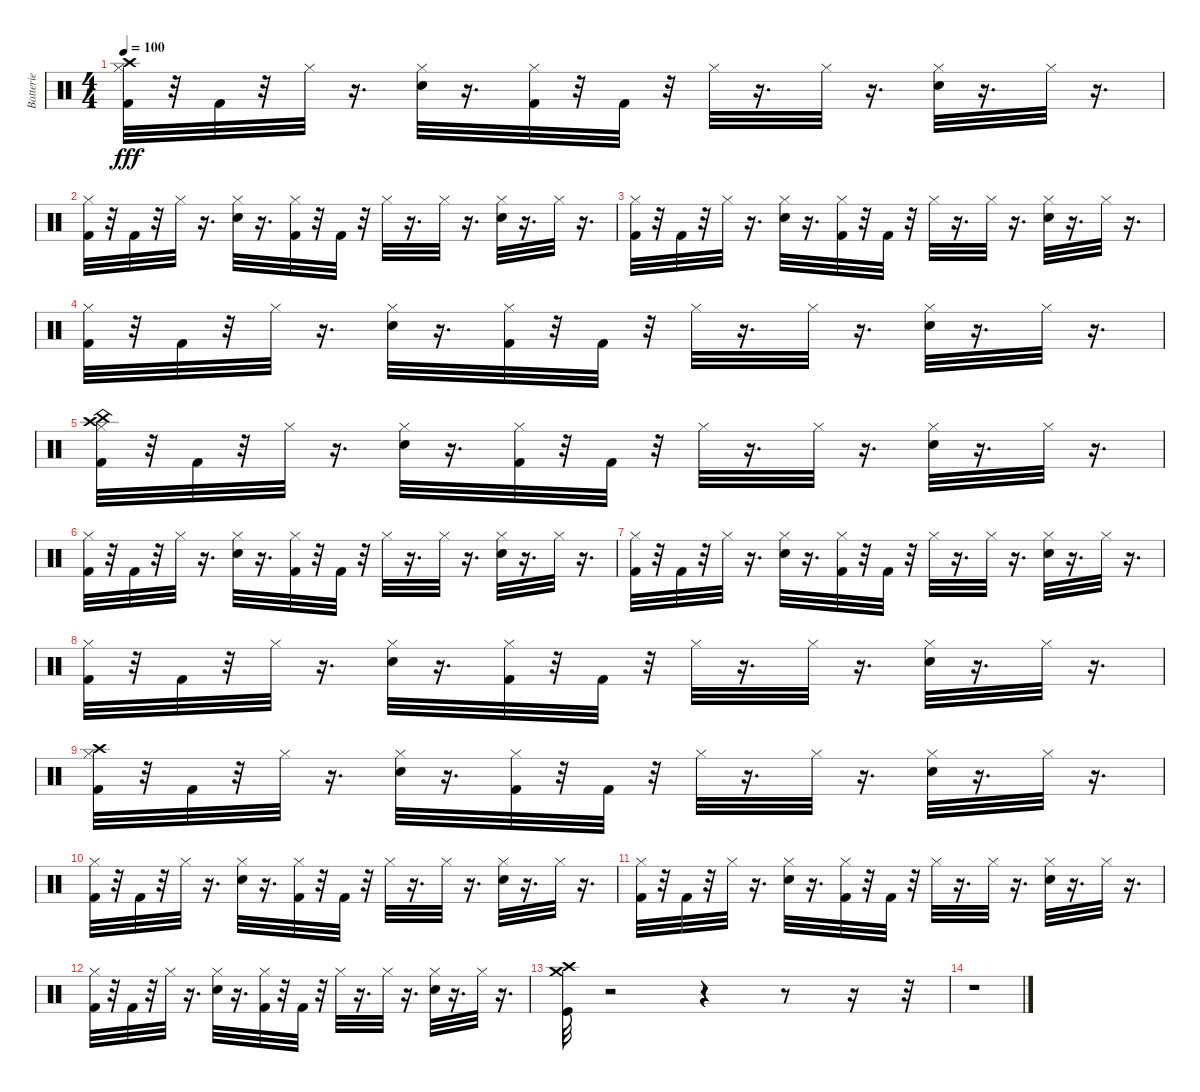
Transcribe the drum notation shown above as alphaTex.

\track ("Batterie" "Batterie") {instrument percussion}
\staff {score}
\articulation defaults
\ts (4 4)
\tempo 100
\clef neutral
\ks c
("Crash high (hit)" "Hi-Hat (closed)" "Kick (hit) 2").32{dy fff} r.32 "Kick (hit) 2".32 r.32 "Hi-Hat (closed)".32 r.16{d} ("Hi-Hat (closed)" "Snare (hit) 2").32 r.16{d} ("Hi-Hat (closed)" "Kick (hit) 2").32 r.32 "Kick (hit) 2".32 r.32 "Hi-Hat (closed)".32 r.16{d} "Hi-Hat (closed)".32 r.16{d} ("Hi-Hat (closed)" "Snare (hit) 2").32 r.16{d} "Hi-Hat (closed)".32 r.16{d} |
("Hi-Hat (closed)" "Kick (hit) 2").32 r.32 "Kick (hit) 2".32 r.32 "Hi-Hat (closed)".32 r.16{d} ("Hi-Hat (closed)" "Snare (hit) 2").32 r.16{d} ("Hi-Hat (closed)" "Kick (hit) 2").32 r.32 "Kick (hit) 2".32 r.32 "Hi-Hat (closed)".32 r.16{d} "Hi-Hat (closed)".32 r.16{d} ("Hi-Hat (closed)" "Snare (hit) 2").32 r.16{d} "Hi-Hat (closed)".32 r.16{d} |
("Hi-Hat (closed)" "Kick (hit) 2").32 r.32 "Kick (hit) 2".32 r.32 "Hi-Hat (closed)".32 r.16{d} ("Hi-Hat (closed)" "Snare (hit) 2").32 r.16{d} ("Hi-Hat (closed)" "Kick (hit) 2").32 r.32 "Kick (hit) 2".32 r.32 "Hi-Hat (closed)".32 r.16{d} "Hi-Hat (closed)".32 r.16{d} ("Hi-Hat (closed)" "Snare (hit) 2").32 r.16{d} "Hi-Hat (closed)".32 r.16{d} |
("Hi-Hat (closed)" "Kick (hit) 2").32 r.32 "Kick (hit) 2".32 r.32 "Hi-Hat (closed)".32 r.16{d} ("Hi-Hat (closed)" "Snare (hit) 2").32 r.16{d} ("Hi-Hat (closed)" "Kick (hit) 2").32 r.32 "Kick (hit) 2".32 r.32 "Hi-Hat (closed)".32 r.16{d} "Hi-Hat (closed)".32 r.16{d} ("Hi-Hat (closed)" "Snare (hit) 2").32 r.16{d} "Hi-Hat (closed)".32 r.16{d} |
("China (hit)" "Crash high (hit)" "Hi-Hat (closed)" "Kick (hit) 2").32 r.32 "Kick (hit) 2".32 r.32 "Hi-Hat (closed)".32 r.16{d} ("Hi-Hat (closed)" "Snare (hit) 2").32 r.16{d} ("Hi-Hat (closed)" "Kick (hit) 2").32 r.32 "Kick (hit) 2".32 r.32 "Hi-Hat (closed)".32 r.16{d} "Hi-Hat (closed)".32 r.16{d} ("Hi-Hat (closed)" "Snare (hit) 2").32 r.16{d} "Hi-Hat (closed)".32 r.16{d} |
("Hi-Hat (closed)" "Kick (hit) 2").32 r.32 "Kick (hit) 2".32 r.32 "Hi-Hat (closed)".32 r.16{d} ("Hi-Hat (closed)" "Snare (hit) 2").32 r.16{d} ("Hi-Hat (closed)" "Kick (hit) 2").32 r.32 "Kick (hit) 2".32 r.32 "Hi-Hat (closed)".32 r.16{d} "Hi-Hat (closed)".32 r.16{d} ("Hi-Hat (closed)" "Snare (hit) 2").32 r.16{d} "Hi-Hat (closed)".32 r.16{d} |
("Hi-Hat (closed)" "Kick (hit) 2").32 r.32 "Kick (hit) 2".32 r.32 "Hi-Hat (closed)".32 r.16{d} ("Hi-Hat (closed)" "Snare (hit) 2").32 r.16{d} ("Hi-Hat (closed)" "Kick (hit) 2").32 r.32 "Kick (hit) 2".32 r.32 "Hi-Hat (closed)".32 r.16{d} "Hi-Hat (closed)".32 r.16{d} ("Hi-Hat (closed)" "Snare (hit) 2").32 r.16{d} "Hi-Hat (closed)".32 r.16{d} |
("Hi-Hat (closed)" "Kick (hit) 2").32 r.32 "Kick (hit) 2".32 r.32 "Hi-Hat (closed)".32 r.16{d} ("Hi-Hat (closed)" "Snare (hit) 2").32 r.16{d} ("Hi-Hat (closed)" "Kick (hit) 2").32 r.32 "Kick (hit) 2".32 r.32 "Hi-Hat (closed)".32 r.16{d} "Hi-Hat (closed)".32 r.16{d} ("Hi-Hat (closed)" "Snare (hit) 2").32 r.16{d} "Hi-Hat (closed)".32 r.16{d} |
("Crash high (hit)" "Hi-Hat (closed)" "Kick (hit) 2").32 r.32 "Kick (hit) 2".32 r.32 "Hi-Hat (closed)".32 r.16{d} ("Hi-Hat (closed)" "Snare (hit) 2").32 r.16{d} ("Hi-Hat (closed)" "Kick (hit) 2").32 r.32 "Kick (hit) 2".32 r.32 "Hi-Hat (closed)".32 r.16{d} "Hi-Hat (closed)".32 r.16{d} ("Hi-Hat (closed)" "Snare (hit) 2").32 r.16{d} "Hi-Hat (closed)".32 r.16{d} |
("Hi-Hat (closed)" "Kick (hit) 2").32 r.32 "Kick (hit) 2".32 r.32 "Hi-Hat (closed)".32 r.16{d} ("Hi-Hat (closed)" "Snare (hit) 2").32 r.16{d} ("Hi-Hat (closed)" "Kick (hit) 2").32 r.32 "Kick (hit) 2".32 r.32 "Hi-Hat (closed)".32 r.16{d} "Hi-Hat (closed)".32 r.16{d} ("Hi-Hat (closed)" "Snare (hit) 2").32 r.16{d} "Hi-Hat (closed)".32 r.16{d} |
("Hi-Hat (closed)" "Kick (hit) 2").32 r.32 "Kick (hit) 2".32 r.32 "Hi-Hat (closed)".32 r.16{d} ("Hi-Hat (closed)" "Snare (hit) 2").32 r.16{d} ("Hi-Hat (closed)" "Kick (hit) 2").32 r.32 "Kick (hit) 2".32 r.32 "Hi-Hat (closed)".32 r.16{d} "Hi-Hat (closed)".32 r.16{d} ("Hi-Hat (closed)" "Snare (hit) 2").32 r.16{d} "Hi-Hat (closed)".32 r.16{d} |
("Hi-Hat (closed)" "Kick (hit) 2").32 r.32 "Kick (hit) 2".32 r.32 "Hi-Hat (closed)".32 r.16{d} ("Hi-Hat (closed)" "Snare (hit) 2").32 r.16{d} ("Hi-Hat (closed)" "Kick (hit) 2").32 r.32 "Kick (hit) 2".32 r.32 "Hi-Hat (closed)".32 r.16{d} "Hi-Hat (closed)".32 r.16{d} ("Hi-Hat (closed)" "Snare (hit) 2").32 r.16{d} "Hi-Hat (closed)".32 r.16{d} |
("Crash medium (hit)" "Crash high (hit)" "Kick (hit)").32 r.2 r.4 r.8 r.16 r.32 |
r.1
